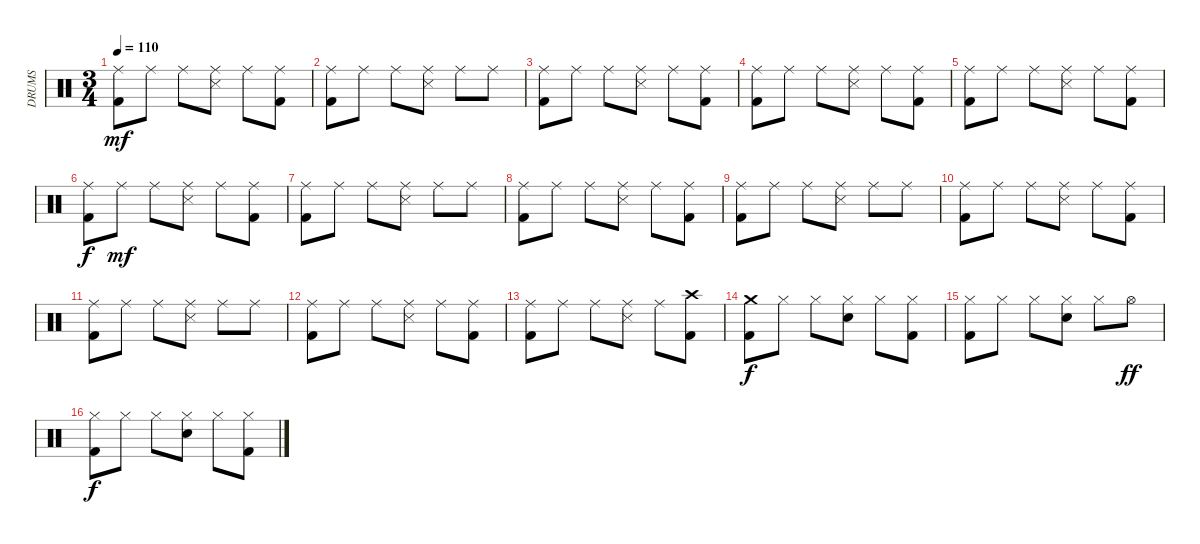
\track ("DRUMS" "DRUMS") {instrument percussion}
\staff {score}
\articulation defaults
\ts (3 4)
\tempo 110
\clef neutral
\ks c
("Ride (middle)" "Kick (hit) 2").8{dy mf} "Ride (middle)".8 "Ride (middle)".8 ("Ride (middle)" "Snare (side stick) 3").8 "Ride (middle)".8 ("Ride (middle)" "Kick (hit) 2").8 |
("Ride (middle)" "Kick (hit) 2").8 "Ride (middle)".8 "Ride (middle)".8 ("Ride (middle)" "Snare (side stick) 3").8 "Ride (middle)".8 "Ride (middle)".8 |
("Ride (middle)" "Kick (hit) 2").8 "Ride (middle)".8 "Ride (middle)".8 ("Ride (middle)" "Snare (side stick) 3").8 "Ride (middle)".8 ("Ride (middle)" "Kick (hit) 2").8 |
("Ride (middle)" "Kick (hit) 2").8 "Ride (middle)".8 "Ride (middle)".8 ("Ride (middle)" "Snare (side stick) 3").8 "Ride (middle)".8 ("Ride (middle)" "Kick (hit) 2").8 |
("Ride (middle)" "Kick (hit) 2").8 "Ride (middle)".8 "Ride (middle)".8 ("Ride (middle)" "Snare (side stick) 3").8 "Ride (middle)".8 ("Ride (middle)" "Kick (hit) 2").8 |
("Ride (middle)" "Kick (hit) 2").8{dy f} "Ride (middle)".8{dy mf} "Ride (middle)".8 ("Ride (middle)" "Snare (side stick) 3").8 "Ride (middle)".8 ("Ride (middle)" "Kick (hit) 2").8 |
("Ride (middle)" "Kick (hit) 2").8 "Ride (middle)".8 "Ride (middle)".8 ("Ride (middle)" "Snare (side stick) 3").8 "Ride (middle)".8 "Ride (middle)".8 |
("Ride (middle)" "Kick (hit) 2").8 "Ride (middle)".8 "Ride (middle)".8 ("Ride (middle)" "Snare (side stick) 3").8 "Ride (middle)".8 ("Ride (middle)" "Kick (hit) 2").8 |
("Ride (middle)" "Kick (hit) 2").8 "Ride (middle)".8 "Ride (middle)".8 ("Ride (middle)" "Snare (side stick) 3").8 "Ride (middle)".8 "Ride (middle)".8 |
("Ride (middle)" "Kick (hit) 2").8 "Ride (middle)".8 "Ride (middle)".8 ("Ride (middle)" "Snare (side stick) 3").8 "Ride (middle)".8 ("Ride (middle)" "Kick (hit) 2").8 |
("Ride (middle)" "Kick (hit) 2").8 "Ride (middle)".8 "Ride (middle)".8 ("Ride (middle)" "Snare (side stick) 3").8 "Ride (middle)".8 "Ride (middle)".8 |
("Ride (middle)" "Kick (hit) 2").8 "Ride (middle)".8 "Ride (middle)".8 ("Ride (middle)" "Snare (side stick) 3").8 "Ride (middle)".8 ("Ride (middle)" "Kick (hit) 2").8 |
("Ride (middle)" "Kick (hit) 2").8 "Ride (middle)".8 "Ride (middle)".8 ("Ride (middle)" "Snare (side stick) 3").8 "Ride (middle)".8 ("Crash high (hit)" "Kick (hit) 2").8 |
("Crash medium (hit)" "Kick (hit) 2").8{dy f volume 4} "Hi-Hat (closed)".8 "Hi-Hat (closed)".8 ("Hi-Hat (closed)" "Snare (hit) 2").8 "Hi-Hat (closed)".8 ("Hi-Hat (closed)" "Kick (hit) 2").8 |
("Hi-Hat (closed)" "Kick (hit) 2").8 "Hi-Hat (closed)".8 "Hi-Hat (closed)".8 ("Hi-Hat (closed)" "Snare (hit) 2").8 "Hi-Hat (closed)".8 "Hi-Hat (open)".8{dy ff} |
("Hi-Hat (closed)" "Kick (hit) 2").8{dy f} "Hi-Hat (closed)".8 "Hi-Hat (closed)".8 ("Hi-Hat (closed)" "Snare (hit) 2").8 "Hi-Hat (closed)".8 ("Hi-Hat (closed)" "Kick (hit) 2").8
